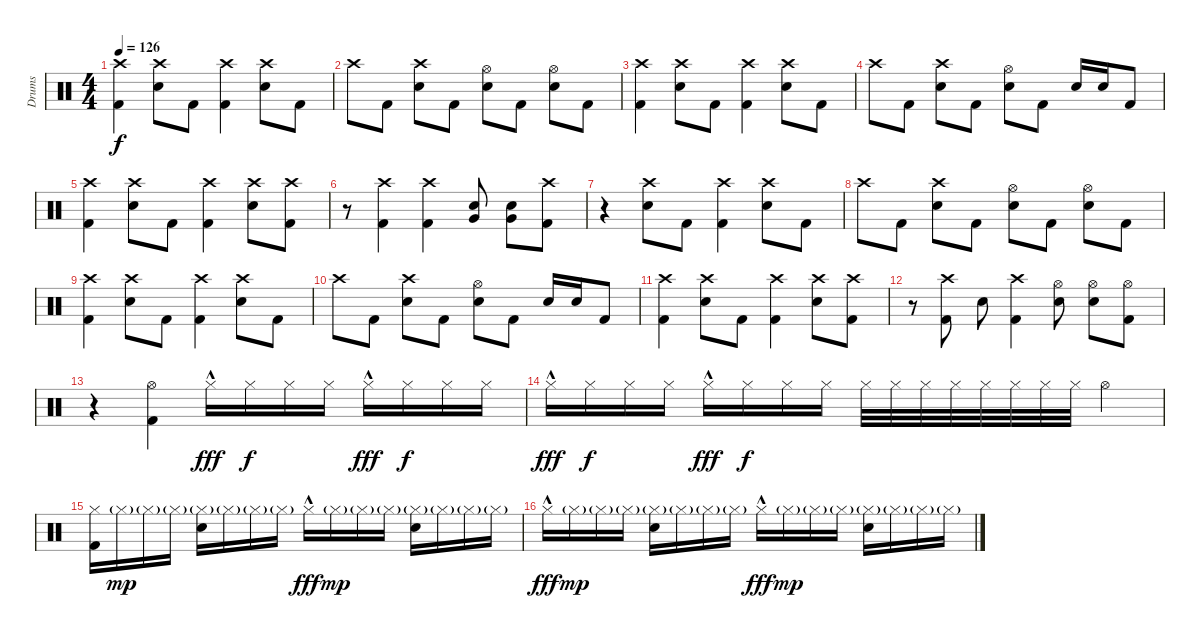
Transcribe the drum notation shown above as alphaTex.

\track ("Drums" "Drums") {instrument percussion}
\staff {score}
\articulation defaults
\ts (4 4)
\tempo 126
\clef neutral
\ks c
("Crash high (hit)" "Kick (hit) 2").4{dy f} ("Crash high (hit)" "Electric Snare (hit)").8 "Kick (hit) 2".8 ("Crash high (hit)" "Kick (hit) 2").4 ("Crash high (hit)" "Electric Snare (hit)").8 "Kick (hit) 2".8 |
"Crash high (hit)".8 "Kick (hit) 2".8 ("Crash high (hit)" "Electric Snare (hit)").8 "Kick (hit) 2".8 ("Hi-Hat (open)" "Electric Snare (hit)").8 "Kick (hit) 2".8 ("Hi-Hat (open)" "Electric Snare (hit)").8 "Kick (hit) 2".8 |
("Crash high (hit)" "Kick (hit) 2").4 ("Crash high (hit)" "Electric Snare (hit)").8 "Kick (hit) 2".8 ("Crash high (hit)" "Kick (hit) 2").4 ("Crash high (hit)" "Electric Snare (hit)").8 "Kick (hit) 2".8 |
"Crash high (hit)".8 "Kick (hit) 2".8 ("Crash high (hit)" "Electric Snare (hit)").8 "Kick (hit) 2".8 ("Hi-Hat (open)" "Electric Snare (hit)").8 "Kick (hit) 2".8 "Electric Snare (hit)".16 "Electric Snare (hit)".16 "Kick (hit) 2".8 |
("Crash high (hit)" "Kick (hit) 2").4 ("Crash high (hit)" "Electric Snare (hit)").8 "Kick (hit) 2".8 ("Crash high (hit)" "Kick (hit) 2").4 ("Crash high (hit)" "Electric Snare (hit)").8 ("Crash high (hit)" "Kick (hit) 2").8 |
r.8 ("Crash high (hit)" "Kick (hit) 2").4 ("Crash high (hit)" "Kick (hit) 2").4 ("Very Low Tom (hit)" "Electric Snare (hit)").8 ("Very Low Tom (hit)" "Electric Snare (hit)").8 ("Crash high (hit)" "Kick (hit) 2").8 |
r.4 ("Crash high (hit)" "Electric Snare (hit)").8 "Kick (hit) 2".8 ("Crash high (hit)" "Kick (hit) 2").4 ("Crash high (hit)" "Electric Snare (hit)").8 "Kick (hit) 2".8 |
"Crash high (hit)".8 "Kick (hit) 2".8 ("Crash high (hit)" "Electric Snare (hit)").8 "Kick (hit) 2".8 ("Hi-Hat (open)" "Electric Snare (hit)").8 "Kick (hit) 2".8 ("Hi-Hat (open)" "Electric Snare (hit)").8 "Kick (hit) 2".8 |
("Crash high (hit)" "Kick (hit) 2").4 ("Crash high (hit)" "Electric Snare (hit)").8 "Kick (hit) 2".8 ("Crash high (hit)" "Kick (hit) 2").4 ("Crash high (hit)" "Electric Snare (hit)").8 "Kick (hit) 2".8 |
"Crash high (hit)".8 "Kick (hit) 2".8 ("Crash high (hit)" "Electric Snare (hit)").8 "Kick (hit) 2".8 ("Hi-Hat (open)" "Electric Snare (hit)").8 "Kick (hit) 2".8 "Electric Snare (hit)".16 "Electric Snare (hit)".16 "Kick (hit) 2".8 |
("Crash high (hit)" "Kick (hit) 2").4 ("Crash high (hit)" "Electric Snare (hit)").8 "Kick (hit) 2".8 ("Crash high (hit)" "Kick (hit) 2").4 ("Crash high (hit)" "Electric Snare (hit)").8 ("Crash high (hit)" "Kick (hit) 2").8 |
r.8 ("Crash high (hit)" "Kick (hit) 2").8 "Electric Snare (hit)".8 ("Crash high (hit)" "Kick (hit) 2").4 ("Hi-Hat (open)" "Electric Snare (hit)").8 ("Hi-Hat (open)" "Electric Snare (hit)").8 ("Hi-Hat (open)" "Kick (hit) 2").8 |
r.4 ("Hi-Hat (open)" "Kick (hit) 2").4 "Hi-Hat (closed)"{hac}.16{dy fff} "Hi-Hat (closed)".16{dy f} "Hi-Hat (closed)".16 "Hi-Hat (closed)".16 "Hi-Hat (closed)"{hac}.16{dy fff} "Hi-Hat (closed)".16{dy f} "Hi-Hat (closed)".16 "Hi-Hat (closed)".16 |
"Hi-Hat (closed)"{hac}.16{dy fff} "Hi-Hat (closed)".16{dy f} "Hi-Hat (closed)".16 "Hi-Hat (closed)".16 "Hi-Hat (closed)"{hac}.16{dy fff} "Hi-Hat (closed)".16{dy f} "Hi-Hat (closed)".16 "Hi-Hat (closed)".16 "Hi-Hat (closed)".32 "Hi-Hat (closed)".32 "Hi-Hat (closed)".32 "Hi-Hat (closed)".32 "Hi-Hat (closed)".32 "Hi-Hat (closed)".32 "Hi-Hat (closed)".32 "Hi-Hat (closed)".32 "Hi-Hat (open)".4 |
("Hi-Hat (closed)" "Kick (hit) 2").16 "Hi-Hat (closed)"{g}.16{dy mp} "Hi-Hat (closed)"{g}.16 "Hi-Hat (closed)"{g}.16 ("Hi-Hat (closed)"{g} "Electric Snare (hit)").16 "Hi-Hat (closed)"{g}.16 "Hi-Hat (closed)"{g}.16 "Hi-Hat (closed)"{g}.16 "Hi-Hat (closed)"{hac}.16{dy fff} "Hi-Hat (closed)"{g}.16{dy mp} "Hi-Hat (closed)"{g}.16 "Hi-Hat (closed)"{g}.16 ("Hi-Hat (closed)"{g} "Electric Snare (hit)").16 "Hi-Hat (closed)"{g}.16 "Hi-Hat (closed)"{g}.16 "Hi-Hat (closed)"{g}.16 |
"Hi-Hat (closed)"{hac}.16{dy fff} "Hi-Hat (closed)"{g}.16{dy mp} "Hi-Hat (closed)"{g}.16 "Hi-Hat (closed)"{g}.16 ("Hi-Hat (closed)"{g} "Electric Snare (hit)").16 "Hi-Hat (closed)"{g}.16 "Hi-Hat (closed)"{g}.16 "Hi-Hat (closed)"{g}.16 "Hi-Hat (closed)"{hac}.16{dy fff} "Hi-Hat (closed)"{g}.16{dy mp} "Hi-Hat (closed)"{g}.16 "Hi-Hat (closed)"{g}.16 ("Hi-Hat (closed)"{g} "Electric Snare (hit)").16 "Hi-Hat (closed)"{g}.16 "Hi-Hat (closed)"{g}.16 "Hi-Hat (closed)"{g}.16
